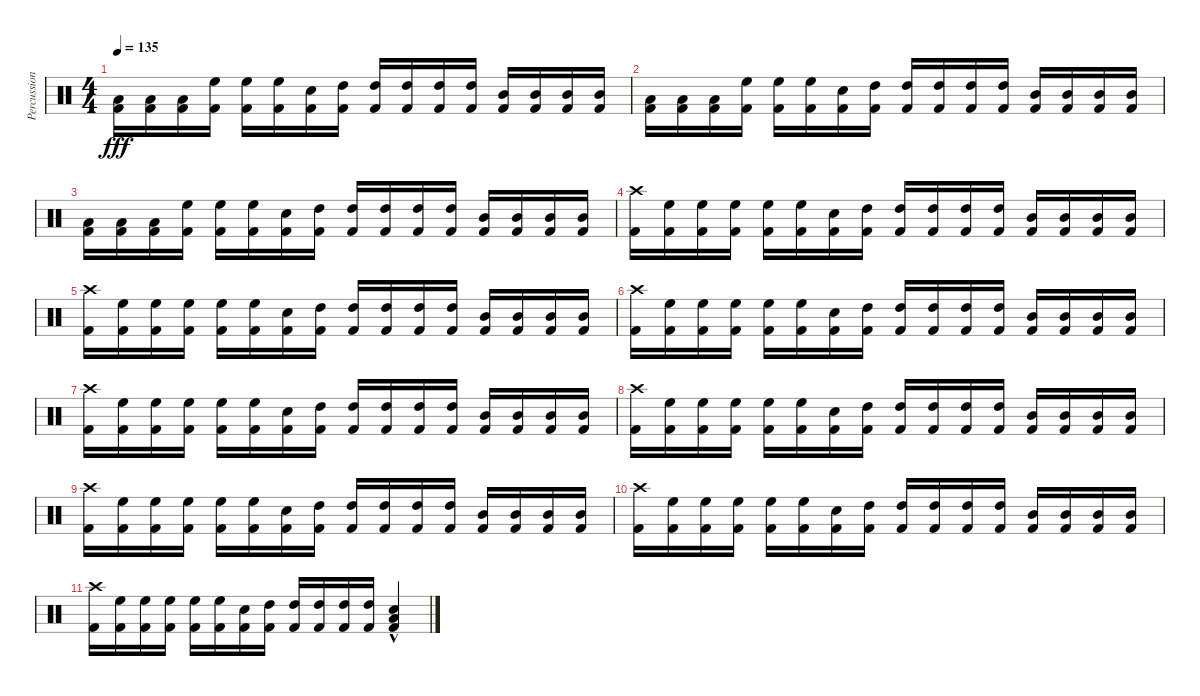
\track ("Percussion" "Percussion") {instrument percussion}
\staff {score}
\articulation defaults
\ts (4 4)
\tempo 135
\clef neutral
\ks c
("Low Tom (hit)" "Kick (hit) 2").16{dy fff} ("Low Tom (hit)" "Kick (hit) 2").16 ("Low Tom (hit)" "Kick (hit) 2").16 ("High Floor Tom (hit)" "Kick (hit) 2").16 ("High Floor Tom (hit)" "Kick (hit) 2").16 ("High Floor Tom (hit)" "Kick (hit) 2").16 ("Snare (hit) 2" "Kick (hit) 2").16 ("High Tom (hit)" "Kick (hit) 2").16 ("High Tom (hit)" "Kick (hit) 2").16 ("High Tom (hit)" "Kick (hit) 2").16 ("High Tom (hit)" "Kick (hit) 2").16 ("High Tom (hit)" "Kick (hit) 2").16 ("Mid Tom (hit)" "Kick (hit) 2").16 ("Mid Tom (hit)" "Kick (hit) 2").16 ("Mid Tom (hit)" "Kick (hit) 2").16 ("Mid Tom (hit)" "Kick (hit) 2").16 |
("Low Tom (hit)" "Kick (hit) 2").16 ("Low Tom (hit)" "Kick (hit) 2").16 ("Low Tom (hit)" "Kick (hit) 2").16 ("High Floor Tom (hit)" "Kick (hit) 2").16 ("High Floor Tom (hit)" "Kick (hit) 2").16 ("High Floor Tom (hit)" "Kick (hit) 2").16 ("Snare (hit) 2" "Kick (hit) 2").16 ("High Tom (hit)" "Kick (hit) 2").16 ("High Tom (hit)" "Kick (hit) 2").16 ("High Tom (hit)" "Kick (hit) 2").16 ("High Tom (hit)" "Kick (hit) 2").16 ("High Tom (hit)" "Kick (hit) 2").16 ("Mid Tom (hit)" "Kick (hit) 2").16 ("Mid Tom (hit)" "Kick (hit) 2").16 ("Mid Tom (hit)" "Kick (hit) 2").16 ("Mid Tom (hit)" "Kick (hit) 2").16 |
("Low Tom (hit)" "Kick (hit) 2").16 ("Low Tom (hit)" "Kick (hit) 2").16 ("Low Tom (hit)" "Kick (hit) 2").16 ("High Floor Tom (hit)" "Kick (hit) 2").16 ("High Floor Tom (hit)" "Kick (hit) 2").16 ("High Floor Tom (hit)" "Kick (hit) 2").16 ("Snare (hit) 2" "Kick (hit) 2").16 ("High Tom (hit)" "Kick (hit) 2").16 ("High Tom (hit)" "Kick (hit) 2").16 ("High Tom (hit)" "Kick (hit) 2").16 ("High Tom (hit)" "Kick (hit) 2").16 ("High Tom (hit)" "Kick (hit) 2").16 ("Mid Tom (hit)" "Kick (hit) 2").16 ("Mid Tom (hit)" "Kick (hit) 2").16 ("Mid Tom (hit)" "Kick (hit) 2").16 ("Mid Tom (hit)" "Kick (hit) 2").16 |
("Crash high (hit)" "Kick (hit) 2").16 ("High Floor Tom (hit)" "Kick (hit) 2").16 ("High Floor Tom (hit)" "Kick (hit) 2").16 ("High Floor Tom (hit)" "Kick (hit) 2").16 ("High Floor Tom (hit)" "Kick (hit) 2").16 ("High Floor Tom (hit)" "Kick (hit) 2").16 ("Snare (hit) 2" "Kick (hit) 2").16 ("High Tom (hit)" "Kick (hit) 2").16 ("High Tom (hit)" "Kick (hit) 2").16 ("High Tom (hit)" "Kick (hit) 2").16 ("High Tom (hit)" "Kick (hit) 2").16 ("High Tom (hit)" "Kick (hit) 2").16 ("Mid Tom (hit)" "Kick (hit) 2").16 ("Mid Tom (hit)" "Kick (hit) 2").16 ("Mid Tom (hit)" "Kick (hit) 2").16 ("Mid Tom (hit)" "Kick (hit) 2").16 |
("Crash high (hit)" "Kick (hit) 2").16 ("High Floor Tom (hit)" "Kick (hit) 2").16 ("High Floor Tom (hit)" "Kick (hit) 2").16 ("High Floor Tom (hit)" "Kick (hit) 2").16 ("High Floor Tom (hit)" "Kick (hit) 2").16 ("High Floor Tom (hit)" "Kick (hit) 2").16 ("Snare (hit) 2" "Kick (hit) 2").16 ("High Tom (hit)" "Kick (hit) 2").16 ("High Tom (hit)" "Kick (hit) 2").16 ("High Tom (hit)" "Kick (hit) 2").16 ("High Tom (hit)" "Kick (hit) 2").16 ("High Tom (hit)" "Kick (hit) 2").16 ("Mid Tom (hit)" "Kick (hit) 2").16 ("Mid Tom (hit)" "Kick (hit) 2").16 ("Mid Tom (hit)" "Kick (hit) 2").16 ("Mid Tom (hit)" "Kick (hit) 2").16 |
("Crash high (hit)" "Kick (hit) 2").16 ("High Floor Tom (hit)" "Kick (hit) 2").16 ("High Floor Tom (hit)" "Kick (hit) 2").16 ("High Floor Tom (hit)" "Kick (hit) 2").16 ("High Floor Tom (hit)" "Kick (hit) 2").16 ("High Floor Tom (hit)" "Kick (hit) 2").16 ("Snare (hit) 2" "Kick (hit) 2").16 ("High Tom (hit)" "Kick (hit) 2").16 ("High Tom (hit)" "Kick (hit) 2").16 ("High Tom (hit)" "Kick (hit) 2").16 ("High Tom (hit)" "Kick (hit) 2").16 ("High Tom (hit)" "Kick (hit) 2").16 ("Mid Tom (hit)" "Kick (hit) 2").16 ("Mid Tom (hit)" "Kick (hit) 2").16 ("Mid Tom (hit)" "Kick (hit) 2").16 ("Mid Tom (hit)" "Kick (hit) 2").16 |
("Crash high (hit)" "Kick (hit) 2").16 ("High Floor Tom (hit)" "Kick (hit) 2").16 ("High Floor Tom (hit)" "Kick (hit) 2").16 ("High Floor Tom (hit)" "Kick (hit) 2").16 ("High Floor Tom (hit)" "Kick (hit) 2").16 ("High Floor Tom (hit)" "Kick (hit) 2").16 ("Snare (hit) 2" "Kick (hit) 2").16 ("High Tom (hit)" "Kick (hit) 2").16 ("High Tom (hit)" "Kick (hit) 2").16 ("High Tom (hit)" "Kick (hit) 2").16 ("High Tom (hit)" "Kick (hit) 2").16 ("High Tom (hit)" "Kick (hit) 2").16 ("Mid Tom (hit)" "Kick (hit) 2").16 ("Mid Tom (hit)" "Kick (hit) 2").16 ("Mid Tom (hit)" "Kick (hit) 2").16 ("Mid Tom (hit)" "Kick (hit) 2").16 |
("Crash high (hit)" "Kick (hit) 2").16 ("High Floor Tom (hit)" "Kick (hit) 2").16 ("High Floor Tom (hit)" "Kick (hit) 2").16 ("High Floor Tom (hit)" "Kick (hit) 2").16 ("High Floor Tom (hit)" "Kick (hit) 2").16 ("High Floor Tom (hit)" "Kick (hit) 2").16 ("Snare (hit) 2" "Kick (hit) 2").16 ("High Tom (hit)" "Kick (hit) 2").16 ("High Tom (hit)" "Kick (hit) 2").16 ("High Tom (hit)" "Kick (hit) 2").16 ("High Tom (hit)" "Kick (hit) 2").16 ("High Tom (hit)" "Kick (hit) 2").16 ("Mid Tom (hit)" "Kick (hit) 2").16 ("Mid Tom (hit)" "Kick (hit) 2").16 ("Mid Tom (hit)" "Kick (hit) 2").16 ("Mid Tom (hit)" "Kick (hit) 2").16 |
("Crash high (hit)" "Kick (hit) 2").16 ("High Floor Tom (hit)" "Kick (hit) 2").16 ("High Floor Tom (hit)" "Kick (hit) 2").16 ("High Floor Tom (hit)" "Kick (hit) 2").16 ("High Floor Tom (hit)" "Kick (hit) 2").16 ("High Floor Tom (hit)" "Kick (hit) 2").16 ("Snare (hit) 2" "Kick (hit) 2").16 ("High Tom (hit)" "Kick (hit) 2").16 ("High Tom (hit)" "Kick (hit) 2").16 ("High Tom (hit)" "Kick (hit) 2").16 ("High Tom (hit)" "Kick (hit) 2").16 ("High Tom (hit)" "Kick (hit) 2").16 ("Mid Tom (hit)" "Kick (hit) 2").16 ("Mid Tom (hit)" "Kick (hit) 2").16 ("Mid Tom (hit)" "Kick (hit) 2").16 ("Mid Tom (hit)" "Kick (hit) 2").16 |
("Crash high (hit)" "Kick (hit) 2").16 ("High Floor Tom (hit)" "Kick (hit) 2").16 ("High Floor Tom (hit)" "Kick (hit) 2").16 ("High Floor Tom (hit)" "Kick (hit) 2").16 ("High Floor Tom (hit)" "Kick (hit) 2").16 ("High Floor Tom (hit)" "Kick (hit) 2").16 ("Snare (hit) 2" "Kick (hit) 2").16 ("High Tom (hit)" "Kick (hit) 2").16 ("High Tom (hit)" "Kick (hit) 2").16 ("High Tom (hit)" "Kick (hit) 2").16 ("High Tom (hit)" "Kick (hit) 2").16 ("High Tom (hit)" "Kick (hit) 2").16 ("Mid Tom (hit)" "Kick (hit) 2").16 ("Mid Tom (hit)" "Kick (hit) 2").16 ("Mid Tom (hit)" "Kick (hit) 2").16 ("Mid Tom (hit)" "Kick (hit) 2").16 |
("Crash high (hit)" "Kick (hit) 2").16 ("High Floor Tom (hit)" "Kick (hit) 2").16 ("High Floor Tom (hit)" "Kick (hit) 2").16 ("High Floor Tom (hit)" "Kick (hit) 2").16 ("High Floor Tom (hit)" "Kick (hit) 2").16 ("High Floor Tom (hit)" "Kick (hit) 2").16 ("Snare (hit) 2" "Kick (hit) 2").16 ("High Tom (hit)" "Kick (hit) 2").16 ("High Tom (hit)" "Kick (hit) 2").16 ("High Tom (hit)" "Kick (hit) 2").16 ("High Tom (hit)" "Kick (hit) 2").16 ("High Tom (hit)" "Kick (hit) 2").16 ("Snare (hit) 2" "Low Floor Tom (hit)"{hac} "Kick (hit) 2").4
